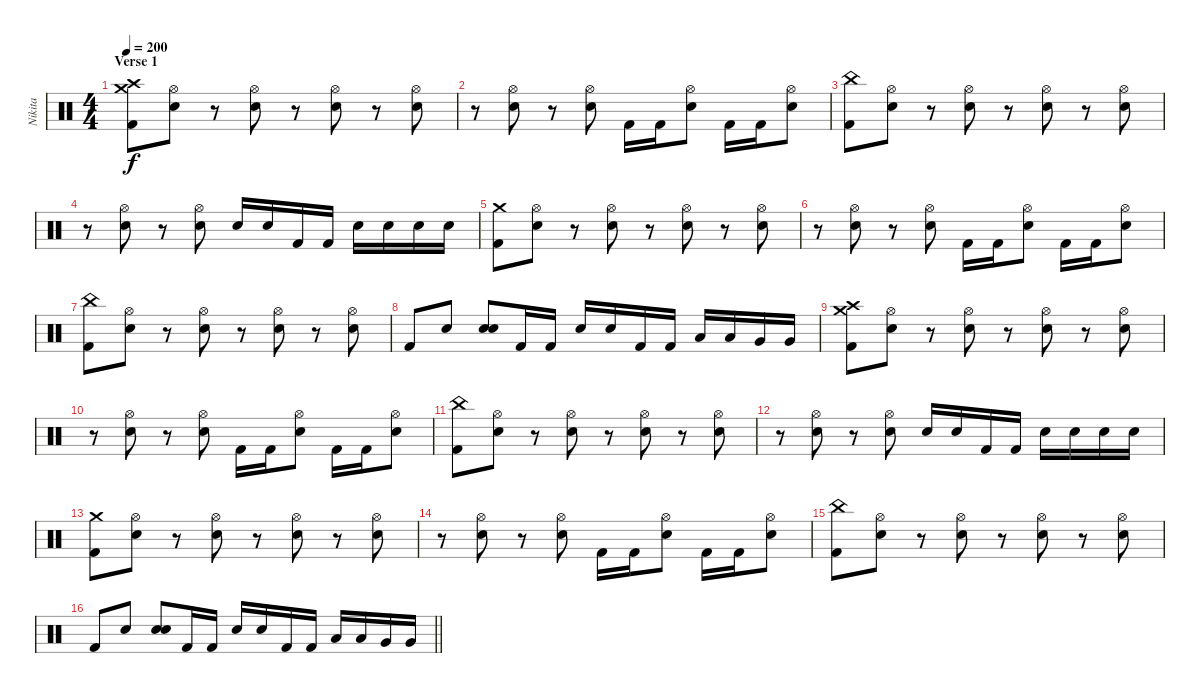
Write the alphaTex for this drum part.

\track ("Nikita" "Nikita") {instrument percussion}
\staff {score}
\articulation defaults
\ts (4 4)
\section ("" "Verse 1")
\tempo 200
\clef neutral
\ks c
("Crash high (hit)" "Crash medium (hit)" "Kick (hit) 2").8{dy f} ("Hi-Hat (open)" "Electric Snare (hit)").8 r.8 ("Hi-Hat (open)" "Electric Snare (hit)").8 r.8 ("Hi-Hat (open)" "Electric Snare (hit)").8 r.8 ("Hi-Hat (open)" "Electric Snare (hit)").8 |
r.8 ("Hi-Hat (open)" "Electric Snare (hit)").8 r.8 ("Hi-Hat (open)" "Electric Snare (hit)").8 "Kick (hit) 2".16 "Kick (hit) 2".16 ("Hi-Hat (open)" "Electric Snare (hit)").8 "Kick (hit) 2".16 "Kick (hit) 2".16 ("Hi-Hat (open)" "Electric Snare (hit)").8 |
("China (hit)" "Kick (hit) 2").8 ("Hi-Hat (open)" "Electric Snare (hit)").8 r.8 ("Hi-Hat (open)" "Electric Snare (hit)").8 r.8 ("Hi-Hat (open)" "Electric Snare (hit)").8 r.8 ("Hi-Hat (open)" "Electric Snare (hit)").8 |
r.8 ("Hi-Hat (open)" "Electric Snare (hit)").8 r.8 ("Hi-Hat (open)" "Electric Snare (hit)").8 "Electric Snare (hit)".16 "Electric Snare (hit)".16 "Kick (hit) 2".16 "Kick (hit) 2".16 "Electric Snare (hit)".16 "Electric Snare (hit)".16 "Electric Snare (hit)".16 "Electric Snare (hit)".16 |
("Crash medium (hit)" "Kick (hit) 2").8 ("Hi-Hat (open)" "Electric Snare (hit)").8 r.8 ("Hi-Hat (open)" "Electric Snare (hit)").8 r.8 ("Hi-Hat (open)" "Electric Snare (hit)").8 r.8 ("Hi-Hat (open)" "Electric Snare (hit)").8 |
r.8 ("Hi-Hat (open)" "Electric Snare (hit)").8 r.8 ("Hi-Hat (open)" "Electric Snare (hit)").8 "Kick (hit) 2".16 "Kick (hit) 2".16 ("Hi-Hat (open)" "Electric Snare (hit)").8 "Kick (hit) 2".16 "Kick (hit) 2".16 ("Hi-Hat (open)" "Electric Snare (hit)").8 |
("China (hit)" "Kick (hit) 2").8 ("Hi-Hat (open)" "Electric Snare (hit)").8 r.8 ("Hi-Hat (open)" "Electric Snare (hit)").8 r.8 ("Hi-Hat (open)" "Electric Snare (hit)").8 r.8 ("Hi-Hat (open)" "Electric Snare (hit)").8 |
"Kick (hit) 2".8 "Electric Snare (hit)".8 ("Metronome (bell)" "Electric Snare (hit)").8 "Kick (hit) 2".16 "Kick (hit) 2".16 "Electric Snare (hit)".16 "Electric Snare (hit)".16 "Kick (hit) 2".16 "Kick (hit) 2".16 "Low Tom (hit)".16 "Low Tom (hit)".16 "Very Low Tom (hit)".16 "Very Low Tom (hit)".16 |
("Crash high (hit)" "Crash medium (hit)" "Kick (hit) 2").8 ("Hi-Hat (open)" "Electric Snare (hit)").8 r.8 ("Hi-Hat (open)" "Electric Snare (hit)").8 r.8 ("Hi-Hat (open)" "Electric Snare (hit)").8 r.8 ("Hi-Hat (open)" "Electric Snare (hit)").8 |
r.8 ("Hi-Hat (open)" "Electric Snare (hit)").8 r.8 ("Hi-Hat (open)" "Electric Snare (hit)").8 "Kick (hit) 2".16 "Kick (hit) 2".16 ("Hi-Hat (open)" "Electric Snare (hit)").8 "Kick (hit) 2".16 "Kick (hit) 2".16 ("Hi-Hat (open)" "Electric Snare (hit)").8 |
("China (hit)" "Kick (hit) 2").8 ("Hi-Hat (open)" "Electric Snare (hit)").8 r.8 ("Hi-Hat (open)" "Electric Snare (hit)").8 r.8 ("Hi-Hat (open)" "Electric Snare (hit)").8 r.8 ("Hi-Hat (open)" "Electric Snare (hit)").8 |
r.8 ("Hi-Hat (open)" "Electric Snare (hit)").8 r.8 ("Hi-Hat (open)" "Electric Snare (hit)").8 "Electric Snare (hit)".16 "Electric Snare (hit)".16 "Kick (hit) 2".16 "Kick (hit) 2".16 "Electric Snare (hit)".16 "Electric Snare (hit)".16 "Electric Snare (hit)".16 "Electric Snare (hit)".16 |
("Crash medium (hit)" "Kick (hit) 2").8 ("Hi-Hat (open)" "Electric Snare (hit)").8 r.8 ("Hi-Hat (open)" "Electric Snare (hit)").8 r.8 ("Hi-Hat (open)" "Electric Snare (hit)").8 r.8 ("Hi-Hat (open)" "Electric Snare (hit)").8 |
r.8 ("Hi-Hat (open)" "Electric Snare (hit)").8 r.8 ("Hi-Hat (open)" "Electric Snare (hit)").8 "Kick (hit) 2".16 "Kick (hit) 2".16 ("Hi-Hat (open)" "Electric Snare (hit)").8 "Kick (hit) 2".16 "Kick (hit) 2".16 ("Hi-Hat (open)" "Electric Snare (hit)").8 |
("China (hit)" "Kick (hit) 2").8 ("Hi-Hat (open)" "Electric Snare (hit)").8 r.8 ("Hi-Hat (open)" "Electric Snare (hit)").8 r.8 ("Hi-Hat (open)" "Electric Snare (hit)").8 r.8 ("Hi-Hat (open)" "Electric Snare (hit)").8 |
\barLineRight lightlight "Kick (hit) 2".8 "Electric Snare (hit)".8
("Metronome (bell)" "Electric Snare (hit)").8 "Kick (hit) 2".16 "Kick (hit) 2".16 "Electric Snare (hit)".16 "Electric Snare (hit)".16 "Kick (hit) 2".16 "Kick (hit) 2".16 "Low Tom (hit)".16 "Low Tom (hit)".16 "Very Low Tom (hit)".16 "Very Low Tom (hit)".16
